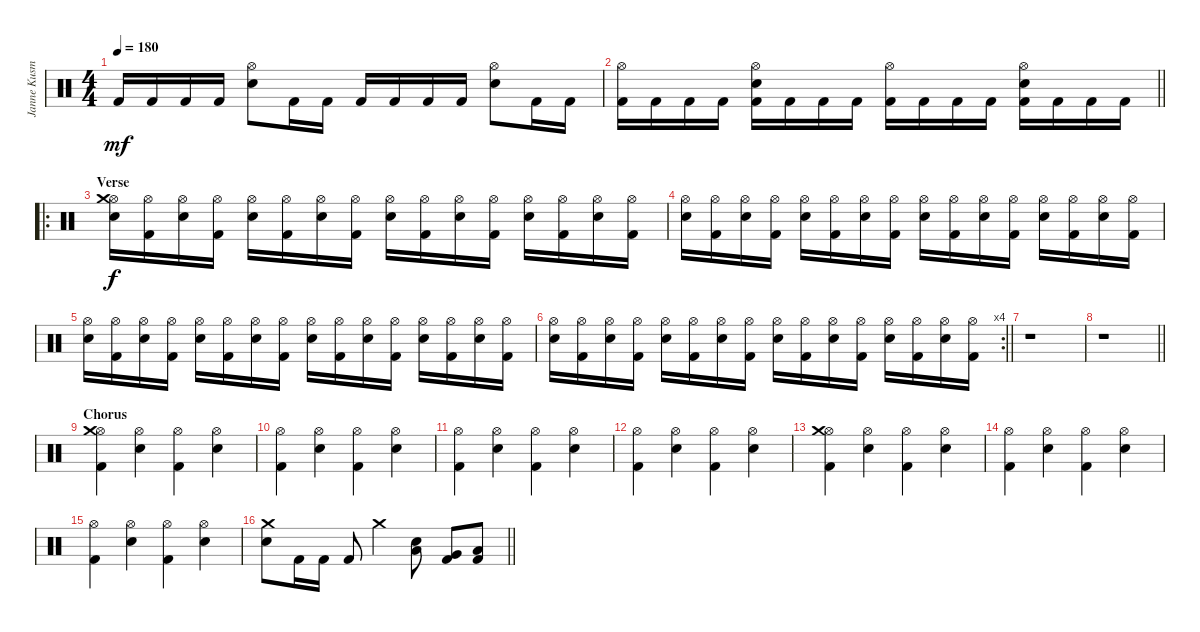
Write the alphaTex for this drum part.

\track ("Janne Kusmin" "Janne Kusm") {instrument percussion}
\staff {score}
\articulation defaults
\ts (4 4)
\tempo 180
\clef neutral
\ks c "Kick (hit) 2".16{dy mf} "Kick (hit) 2".16 "Kick (hit) 2".16 "Kick (hit) 2".16
("Electric Snare (hit)" "Hi-Hat (open)").8 "Kick (hit) 2".16 "Kick (hit) 2".16 "Kick (hit) 2".16 "Kick (hit) 2".16 "Kick (hit) 2".16 "Kick (hit) 2".16 ("Electric Snare (hit)" "Hi-Hat (open)").8 "Kick (hit) 2".16 "Kick (hit) 2".16 |
\barLineRight lightlight
("Kick (hit) 2" "Hi-Hat (open)").16 "Kick (hit) 2".16 "Kick (hit) 2".16 "Kick (hit) 2".16 ("Kick (hit) 2" "Electric Snare (hit)" "Hi-Hat (open)").16 "Kick (hit) 2".16 "Kick (hit) 2".16 "Kick (hit) 2".16 ("Kick (hit) 2" "Hi-Hat (open)").16 "Kick (hit) 2".16 "Kick (hit) 2".16 "Kick (hit) 2".16 ("Kick (hit) 2" "Electric Snare (hit)" "Hi-Hat (open)").16 "Kick (hit) 2".16 "Kick (hit) 2".16 "Kick (hit) 2".16 |
\ro
\section ("" "Verse")
("Electric Snare (hit)" "Hi-Hat (open)" "Crash medium (hit)").16{dy f} ("Kick (hit) 2" "Hi-Hat (open)").16 ("Electric Snare (hit)" "Hi-Hat (open)").16 ("Kick (hit) 2" "Hi-Hat (open)").16 ("Electric Snare (hit)" "Hi-Hat (open)").16 ("Kick (hit) 2" "Hi-Hat (open)").16 ("Electric Snare (hit)" "Hi-Hat (open)").16 ("Kick (hit) 2" "Hi-Hat (open)").16 ("Electric Snare (hit)" "Hi-Hat (open)").16 ("Kick (hit) 2" "Hi-Hat (open)").16 ("Electric Snare (hit)" "Hi-Hat (open)").16 ("Kick (hit) 2" "Hi-Hat (open)").16 ("Electric Snare (hit)" "Hi-Hat (open)").16 ("Kick (hit) 2" "Hi-Hat (open)").16 ("Electric Snare (hit)" "Hi-Hat (open)").16 ("Kick (hit) 2" "Hi-Hat (open)").16 |
("Electric Snare (hit)" "Hi-Hat (open)").16 ("Kick (hit) 2" "Hi-Hat (open)").16 ("Electric Snare (hit)" "Hi-Hat (open)").16 ("Kick (hit) 2" "Hi-Hat (open)").16 ("Electric Snare (hit)" "Hi-Hat (open)").16 ("Kick (hit) 2" "Hi-Hat (open)").16 ("Electric Snare (hit)" "Hi-Hat (open)").16 ("Kick (hit) 2" "Hi-Hat (open)").16 ("Electric Snare (hit)" "Hi-Hat (open)").16 ("Kick (hit) 2" "Hi-Hat (open)").16 ("Electric Snare (hit)" "Hi-Hat (open)").16 ("Kick (hit) 2" "Hi-Hat (open)").16 ("Electric Snare (hit)" "Hi-Hat (open)").16 ("Kick (hit) 2" "Hi-Hat (open)").16 ("Electric Snare (hit)" "Hi-Hat (open)").16 ("Kick (hit) 2" "Hi-Hat (open)").16 |
("Electric Snare (hit)" "Hi-Hat (open)").16 ("Kick (hit) 2" "Hi-Hat (open)").16 ("Electric Snare (hit)" "Hi-Hat (open)").16 ("Kick (hit) 2" "Hi-Hat (open)").16 ("Electric Snare (hit)" "Hi-Hat (open)").16 ("Kick (hit) 2" "Hi-Hat (open)").16 ("Electric Snare (hit)" "Hi-Hat (open)").16 ("Kick (hit) 2" "Hi-Hat (open)").16 ("Electric Snare (hit)" "Hi-Hat (open)").16 ("Kick (hit) 2" "Hi-Hat (open)").16 ("Electric Snare (hit)" "Hi-Hat (open)").16 ("Kick (hit) 2" "Hi-Hat (open)").16 ("Electric Snare (hit)" "Hi-Hat (open)").16 ("Kick (hit) 2" "Hi-Hat (open)").16 ("Electric Snare (hit)" "Hi-Hat (open)").16 ("Kick (hit) 2" "Hi-Hat (open)").16 |
\rc 4
\barLineRight lightlight
("Electric Snare (hit)" "Hi-Hat (open)").16 ("Kick (hit) 2" "Hi-Hat (open)").16 ("Electric Snare (hit)" "Hi-Hat (open)").16 ("Kick (hit) 2" "Hi-Hat (open)").16 ("Electric Snare (hit)" "Hi-Hat (open)").16 ("Kick (hit) 2" "Hi-Hat (open)").16 ("Electric Snare (hit)" "Hi-Hat (open)").16 ("Kick (hit) 2" "Hi-Hat (open)").16 ("Electric Snare (hit)" "Hi-Hat (open)").16 ("Kick (hit) 2" "Hi-Hat (open)").16 ("Electric Snare (hit)" "Hi-Hat (open)").16 ("Kick (hit) 2" "Hi-Hat (open)").16 ("Electric Snare (hit)" "Hi-Hat (open)").16 ("Kick (hit) 2" "Hi-Hat (open)").16 ("Electric Snare (hit)" "Hi-Hat (open)").16 ("Kick (hit) 2" "Hi-Hat (open)").16 |
r.1 |
\barLineRight lightlight
r.1 |
\section ("" "Chorus")
("Kick (hit) 2" "Hi-Hat (open)" "Crash medium (hit)").4 ("Electric Snare (hit)" "Hi-Hat (open)").4 ("Kick (hit) 2" "Hi-Hat (open)").4 ("Electric Snare (hit)" "Hi-Hat (open)").4 |
("Kick (hit) 2" "Hi-Hat (open)").4 ("Electric Snare (hit)" "Hi-Hat (open)").4 ("Kick (hit) 2" "Hi-Hat (open)").4 ("Electric Snare (hit)" "Hi-Hat (open)").4 |
("Kick (hit) 2" "Hi-Hat (open)").4 ("Electric Snare (hit)" "Hi-Hat (open)").4 ("Kick (hit) 2" "Hi-Hat (open)").4 ("Electric Snare (hit)" "Hi-Hat (open)").4 |
("Kick (hit) 2" "Hi-Hat (open)").4 ("Electric Snare (hit)" "Hi-Hat (open)").4 ("Kick (hit) 2" "Hi-Hat (open)").4 ("Electric Snare (hit)" "Hi-Hat (open)").4 |
("Kick (hit) 2" "Hi-Hat (open)" "Crash medium (hit)").4 ("Electric Snare (hit)" "Hi-Hat (open)").4 ("Kick (hit) 2" "Hi-Hat (open)").4 ("Electric Snare (hit)" "Hi-Hat (open)").4 |
("Kick (hit) 2" "Hi-Hat (open)").4 ("Electric Snare (hit)" "Hi-Hat (open)").4 ("Kick (hit) 2" "Hi-Hat (open)").4 ("Electric Snare (hit)" "Hi-Hat (open)").4 |
("Kick (hit) 2" "Hi-Hat (open)").4 ("Electric Snare (hit)" "Hi-Hat (open)").4 ("Kick (hit) 2" "Hi-Hat (open)").4 ("Electric Snare (hit)" "Hi-Hat (open)").4 |
\barLineRight lightlight
("Electric Snare (hit)" "Crash medium (hit)").8 "Kick (hit) 2".16 "Kick (hit) 2".16 "Kick (hit) 2".8 "Crash medium (hit)".4 ("Electric Snare (hit)" "Low Tom (hit)").8 ("Kick (hit) 2" "Very Low Tom (hit)").8 ("Kick (hit) 2" "Low Floor Tom (hit)").8
